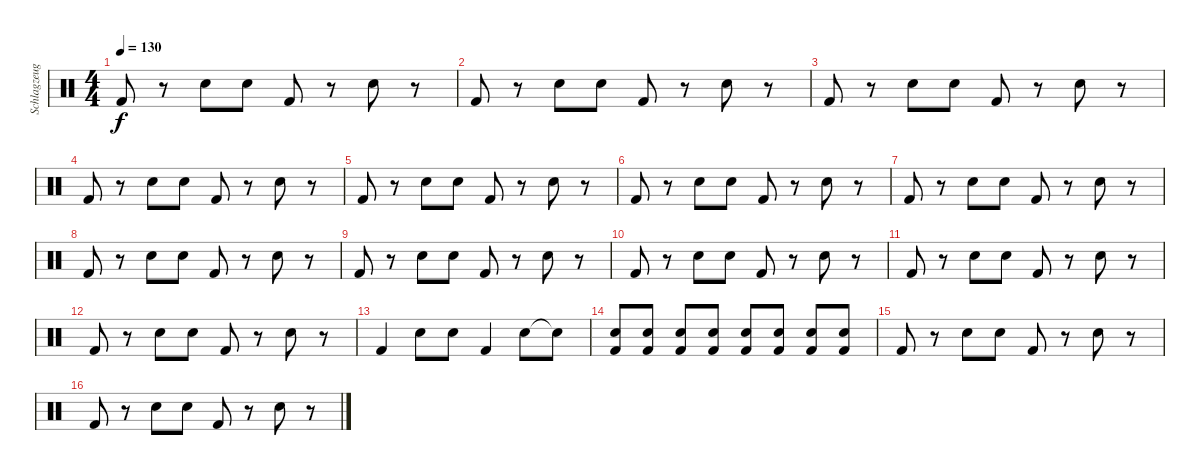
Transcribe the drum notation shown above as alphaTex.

\track ("Schlagzeug" "Schlagzeug") {instrument percussion}
\staff {score}
\articulation defaults
\ts (4 4)
\tempo 130
\clef neutral
\ks c "Kick (hit) 2".8{dy f}
r.8 "Snare (hit) 2".8 "Snare (hit) 2".8 "Kick (hit) 2".8 r.8 "Snare (hit) 2".8 r.8 |
"Kick (hit) 2".8 r.8 "Snare (hit) 2".8 "Snare (hit) 2".8 "Kick (hit) 2".8 r.8 "Snare (hit) 2".8 r.8 |
"Kick (hit) 2".8 r.8 "Snare (hit) 2".8 "Snare (hit) 2".8 "Kick (hit) 2".8 r.8 "Snare (hit) 2".8 r.8 |
"Kick (hit) 2".8 r.8 "Snare (hit) 2".8 "Snare (hit) 2".8 "Kick (hit) 2".8 r.8 "Snare (hit) 2".8 r.8 |
"Kick (hit) 2".8 r.8 "Snare (hit) 2".8 "Snare (hit) 2".8 "Kick (hit) 2".8 r.8 "Snare (hit) 2".8 r.8 |
"Kick (hit) 2".8 r.8 "Snare (hit) 2".8 "Snare (hit) 2".8 "Kick (hit) 2".8 r.8 "Snare (hit) 2".8 r.8 |
"Kick (hit) 2".8 r.8 "Snare (hit) 2".8 "Snare (hit) 2".8 "Kick (hit) 2".8 r.8 "Snare (hit) 2".8 r.8 |
"Kick (hit) 2".8 r.8 "Snare (hit) 2".8 "Snare (hit) 2".8 "Kick (hit) 2".8 r.8 "Snare (hit) 2".8 r.8 |
"Kick (hit) 2".8 r.8 "Snare (hit) 2".8 "Snare (hit) 2".8 "Kick (hit) 2".8 r.8 "Snare (hit) 2".8 r.8 |
"Kick (hit) 2".8 r.8 "Snare (hit) 2".8 "Snare (hit) 2".8 "Kick (hit) 2".8 r.8 "Snare (hit) 2".8 r.8 |
"Kick (hit) 2".8 r.8 "Snare (hit) 2".8 "Snare (hit) 2".8 "Kick (hit) 2".8 r.8 "Snare (hit) 2".8 r.8 |
"Kick (hit) 2".8 r.8 "Snare (hit) 2".8 "Snare (hit) 2".8 "Kick (hit) 2".8 r.8 "Snare (hit) 2".8 r.8 |
"Kick (hit) 2".4 "Snare (hit) 2".8 "Snare (hit) 2".8 "Kick (hit) 2".4 "Snare (hit) 2".8 "Snare (hit)"{t}.8 |
("Snare (hit) 2" "Kick (hit) 2").8 ("Snare (hit) 2" "Kick (hit) 2").8 ("Snare (hit) 2" "Kick (hit) 2").8 ("Snare (hit) 2" "Kick (hit) 2").8 ("Snare (hit) 2" "Kick (hit) 2").8 ("Snare (hit) 2" "Kick (hit) 2").8 ("Snare (hit) 2" "Kick (hit) 2").8 ("Snare (hit) 2" "Kick (hit) 2").8 |
"Kick (hit) 2".8 r.8 "Snare (hit) 2".8 "Snare (hit) 2".8 "Kick (hit) 2".8 r.8 "Snare (hit) 2".8 r.8 |
"Kick (hit) 2".8 r.8 "Snare (hit) 2".8 "Snare (hit) 2".8 "Kick (hit) 2".8 r.8 "Snare (hit) 2".8 r.8
